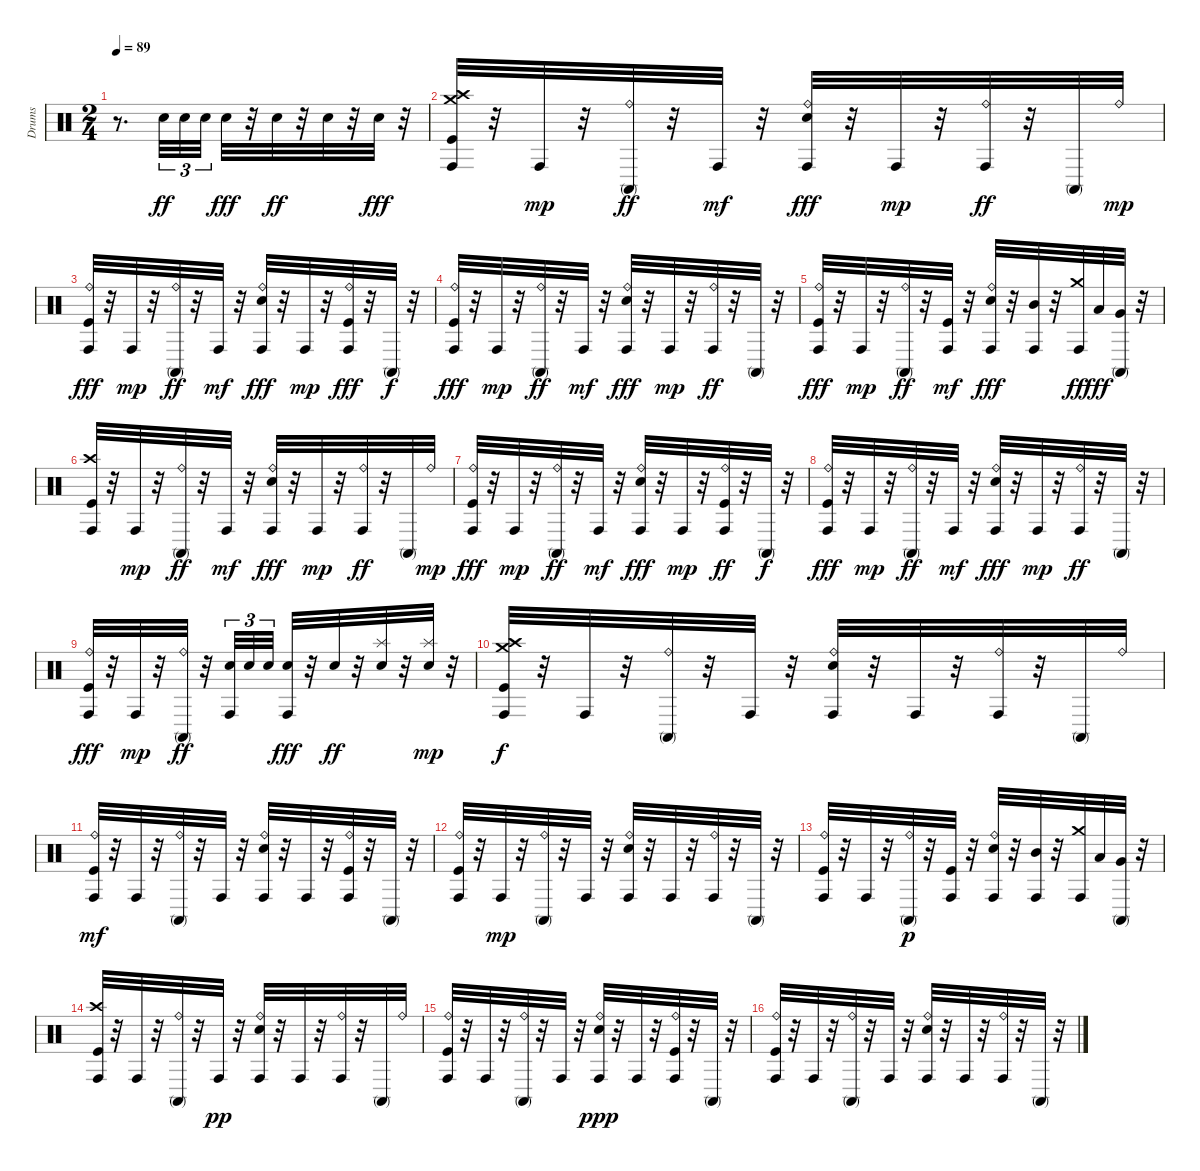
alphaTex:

\track ("Drums" "Drums") {instrument percussion}
\staff {score}
\articulation defaults
\ts (2 4)
\tempo 89
\clef neutral
\ks c
r.8{d dy ff} "Snare (hit) 2".32{tu (3 2)} "Snare (hit) 2".32{tu (3 2)} "Snare (hit) 2".32{tu (3 2)} "Snare (hit) 2".32{dy fff} r.32 "Snare (hit) 2".32{dy ff} r.32 "Snare (hit) 2".32 r.32 "Snare (hit) 2".32{dy fff} r.32 |
("Conga high (hit)" "Crash medium (hit)" "Kick (hit)" "Crash high (hit)").32 r.32 "Conga high (hit)".32{dy mp} r.32 ("Ride (bell)" "Conga high (mute)").32{dy ff} r.32 "Conga high (hit)".32{dy mf} r.32 ("Snare (hit) 2" "Ride (bell)" "Conga high (hit)").32{dy fff} r.32 "Conga high (hit)".32{dy mp} r.32 ("Conga high (hit)" "Ride (bell)").32{dy ff} r.32 "Conga high (mute)".32 "Ride (bell)".32{dy mp} |
("Conga high (hit)" "Kick (hit)" "Ride (bell)").32{dy fff} r.32 "Conga high (hit)".32{dy mp} r.32 ("Ride (bell)" "Conga high (mute)").32{dy ff} r.32 "Conga high (hit)".32{dy mf} r.32 ("Ride (bell)" "Conga high (hit)" "Snare (hit) 2").32{dy fff} r.32 "Conga high (hit)".32{dy mp} r.32 ("Conga high (hit)" "Ride (bell)" "Kick (hit)").32{dy fff} r.32 "Conga high (mute)".32{dy f} r.32 |
("Ride (bell)" "Kick (hit)" "Conga high (hit)").32{dy fff} r.32 "Conga high (hit)".32{dy mp} r.32 ("Ride (bell)" "Conga high (mute)").32{dy ff} r.32 "Conga high (hit)".32{dy mf} r.32 ("Conga high (hit)" "Snare (hit) 2" "Ride (bell)").32{dy fff} r.32 "Conga high (hit)".32{dy mp} r.32 ("Ride (bell)" "Conga high (hit)").32{dy ff} r.32 "Conga high (mute)".32 r.32 |
("Kick (hit)" "Ride (bell)" "Conga high (hit)").32{dy fff} r.32 "Conga high (hit)".32{dy mp} r.32 ("Ride (bell)" "Conga high (mute)").32{dy ff} r.32 ("Kick (hit)" "Conga high (hit)").32{dy mf} r.32 ("Ride (bell)" "Snare (hit) 2" "Conga high (hit)").32{dy fff} r.32 ("Conga high (hit)" "Mid Tom (hit)").32 r.32 ("Crash medium (hit)" "Conga high (hit)").32{dy ff} "Low Tom (hit)".32{dy fff} ("Very Low Tom (hit)" "Conga high (mute)").32 r.32 |
("Kick (hit)" "Conga high (hit)" "Crash high (hit)").32 r.32 "Conga high (hit)".32{dy mp} r.32 ("Ride (bell)" "Conga high (mute)").32{dy ff} r.32 "Conga high (hit)".32{dy mf} r.32 ("Snare (hit) 2" "Conga high (hit)" "Ride (bell)").32{dy fff} r.32 "Conga high (hit)".32{dy mp} r.32 ("Ride (bell)" "Conga high (hit)").32{dy ff} r.32 "Conga high (mute)".32 "Ride (bell)".32{dy mp} |
("Kick (hit)" "Ride (bell)" "Conga high (hit)").32{dy fff} r.32 "Conga high (hit)".32{dy mp} r.32 ("Ride (bell)" "Conga high (mute)").32{dy ff} r.32 "Conga high (hit)".32{dy mf} r.32 ("Ride (bell)" "Conga high (hit)" "Snare (hit) 2").32{dy fff} r.32 "Conga high (hit)".32{dy mp} r.32 ("Ride (bell)" "Kick (hit)" "Conga high (hit)").32{dy ff} r.32 "Conga high (mute)".32{dy f} r.32 |
("Kick (hit)" "Conga high (hit)" "Ride (bell)").32{dy fff} r.32 "Conga high (hit)".32{dy mp} r.32 ("Conga high (mute)" "Ride (bell)").32{dy ff} r.32 "Conga high (hit)".32{dy mf} r.32 ("Ride (bell)" "Conga high (hit)" "Snare (hit) 2").32{dy fff} r.32 "Conga high (hit)".32{dy mp} r.32 ("Conga high (hit)" "Ride (bell)").32{dy ff} r.32 "Conga high (mute)".32 r.32 |
("Conga high (hit)" "Ride (bell)" "Kick (hit)").32{dy fff} r.32 "Conga high (hit)".32{dy mp} r.32 ("Ride (bell)" "Conga high (mute)").32{dy ff} r.32 ("Conga high (hit)" "Snare (hit) 2").32{tu (3 2)} "Snare (hit) 2".32{tu (3 2)} "Snare (hit) 2".32{tu (3 2)} ("Snare (hit) 2" "Conga high (hit)").32{dy fff} r.32 "Snare (hit) 2".32{dy ff} r.32 ("Snare (hit) 2" "Splash (hit)").32 r.32 ("Snare (hit) 2" "Splash (hit)").32{dy mp} r.32 |
("Crash medium (hit)" "Conga high (hit)" "Kick (hit)" "Crash high (hit)").32{dy f} r.32 "Conga high (hit)".32 r.32 ("Conga high (mute)" "Ride (bell)").32 r.32 "Conga high (hit)".32 r.32 ("Conga high (hit)" "Ride (bell)" "Snare (hit) 2").32 r.32 "Conga high (hit)".32 r.32 ("Conga high (hit)" "Ride (bell)").32 r.32 "Conga high (mute)".32 "Ride (bell)".32 |
("Kick (hit)" "Ride (bell)" "Conga high (hit)").32{dy mf} r.32 "Conga high (hit)".32 r.32 ("Conga high (mute)" "Ride (bell)").32 r.32 "Conga high (hit)".32 r.32 ("Ride (bell)" "Conga high (hit)" "Snare (hit) 2").32 r.32 "Conga high (hit)".32 r.32 ("Ride (bell)" "Conga high (hit)" "Kick (hit)").32 r.32 "Conga high (mute)".32 r.32 |
("Ride (bell)" "Conga high (hit)" "Kick (hit)").32 r.32 "Conga high (hit)".32{dy mp} r.32 ("Ride (bell)" "Conga high (mute)").32 r.32 "Conga high (hit)".32 r.32 ("Conga high (hit)" "Snare (hit) 2" "Ride (bell)").32 r.32 "Conga high (hit)".32 r.32 ("Conga high (hit)" "Ride (bell)").32 r.32 "Conga high (mute)".32 r.32 |
("Ride (bell)" "Kick (hit)" "Conga high (hit)").32 r.32 "Conga high (hit)".32 r.32 ("Ride (bell)" "Conga high (mute)").32{dy p} r.32 ("Kick (hit)" "Conga high (hit)").32 r.32 ("Conga high (hit)" "Ride (bell)" "Snare (hit) 2").32 r.32 ("Mid Tom (hit)" "Conga high (hit)").32 r.32 ("Conga high (hit)" "Crash medium (hit)").32 "Low Tom (hit)".32 ("Very Low Tom (hit)" "Conga high (mute)").32 r.32 |
("Crash high (hit)" "Conga high (hit)" "Kick (hit)").32 r.32 "Conga high (hit)".32 r.32 ("Ride (bell)" "Conga high (mute)").32 r.32 "Conga high (hit)".32{dy pp} r.32 ("Snare (hit) 2" "Conga high (hit)" "Ride (bell)").32 r.32 "Conga high (hit)".32 r.32 ("Conga high (hit)" "Ride (bell)").32 r.32 "Conga high (mute)".32 "Ride (bell)".32 |
("Ride (bell)" "Kick (hit)" "Conga high (hit)").32 r.32 "Conga high (hit)".32 r.32 ("Conga high (mute)" "Ride (bell)").32 r.32 "Conga high (hit)".32 r.32 ("Conga high (hit)" "Ride (bell)" "Snare (hit) 2").32{dy ppp} r.32 "Conga high (hit)".32 r.32 ("Conga high (hit)" "Ride (bell)" "Kick (hit)").32 r.32 "Conga high (mute)".32 r.32 |
("Kick (hit)" "Conga high (hit)" "Ride (bell)").32 r.32 "Conga high (hit)".32 r.32 ("Ride (bell)" "Conga high (mute)").32 r.32 "Conga high (hit)".32 r.32 ("Ride (bell)" "Snare (hit) 2" "Conga high (hit)").32 r.32 "Conga high (hit)".32 r.32 ("Ride (bell)" "Conga high (hit)").32 r.32 "Conga high (mute)".32 r.32
